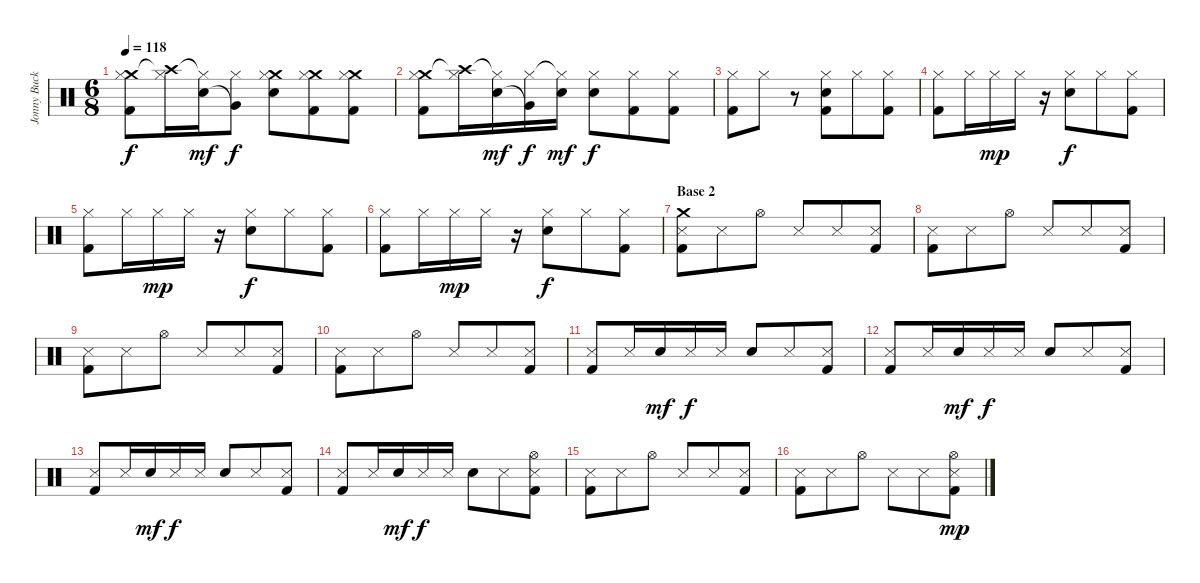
\track ("Jonny Buckland (batera)" "Jonny Buck") {instrument percussion}
\staff {score}
\articulation defaults
\ts (6 8)
\tempo 118
\clef neutral
\ks c
("Crash medium (hit)" "Hi-Hat (closed)" "Kick (hit) 2").8{dy f} ("Crash high (hit)"{t} "Hi-Hat (closed)").16 ("Hi-Hat (closed)"{t} "Snare (hit) 2").16{dy mf} ("Hi-Hat (closed)" "Very Low Tom (hit)"{t}).8{dy f} ("Crash medium (hit)" "Hi-Hat (closed)" "Electric Snare (hit)").8 ("Crash medium (hit)" "Hi-Hat (closed)" "Kick (hit) 2").8 ("Crash medium (hit)" "Hi-Hat (closed)" "Kick (hit) 2").8 |
("Crash medium (hit)" "Hi-Hat (closed)" "Kick (hit) 2").8 ("Crash high (hit)"{t} "Hi-Hat (closed)").16 ("Hi-Hat (closed)"{t} "Snare (hit) 2").16{dy mf} ("Hi-Hat (closed)" "Very Low Tom (hit)"{t}).16{dy f} ("Hi-Hat (closed)"{t} "Snare (hit) 2").16{dy mf} ("Hi-Hat (closed)" "Electric Snare (hit)").8{dy f} ("Hi-Hat (closed)" "Kick (hit) 2").8 ("Hi-Hat (closed)" "Kick (hit) 2").8 |
("Hi-Hat (closed)" "Kick (hit) 2").8 "Hi-Hat (closed)".8 r.8 ("Hi-Hat (closed)" "Electric Snare (hit)" "Kick (hit) 2").8 "Hi-Hat (closed)".8 ("Hi-Hat (closed)" "Kick (hit) 2").8 |
("Hi-Hat (closed)" "Kick (hit) 2").8 "Hi-Hat (closed)".16 "Hi-Hat (closed)".16{dy mp} "Hi-Hat (closed)".16 r.16 ("Hi-Hat (closed)" "Electric Snare (hit)").8{dy f} "Hi-Hat (closed)".8 ("Hi-Hat (closed)" "Kick (hit) 2").8 |
("Hi-Hat (closed)" "Kick (hit) 2").8 "Hi-Hat (closed)".16 "Hi-Hat (closed)".16{dy mp} "Hi-Hat (closed)".16 r.16 ("Hi-Hat (closed)" "Electric Snare (hit)").8{dy f} "Hi-Hat (closed)".8 ("Hi-Hat (closed)" "Kick (hit) 2").8 |
("Hi-Hat (closed)" "Kick (hit) 2").8 "Hi-Hat (closed)".16 "Hi-Hat (closed)".16{dy mp} "Hi-Hat (closed)".16 r.16 ("Hi-Hat (closed)" "Electric Snare (hit)").8{dy f} "Hi-Hat (closed)".8 ("Hi-Hat (closed)" "Kick (hit) 2").8 |
\section ("" "Base 2")
("Crash medium (hit)" "Snare (side stick) 3" "Kick (hit) 2").8 "Snare (side stick) 3".8 "Hi-Hat (open)".8 "Snare (side stick) 3".8 "Snare (side stick) 3".8 ("Snare (side stick) 3" "Kick (hit) 2").8 |
("Snare (side stick) 3" "Kick (hit) 2").8 "Snare (side stick) 3".8 "Hi-Hat (open)".8 "Snare (side stick) 3".8 "Snare (side stick) 3".8 ("Snare (side stick) 3" "Kick (hit) 2").8 |
("Snare (side stick) 3" "Kick (hit) 2").8 "Snare (side stick) 3".8 "Hi-Hat (open)".8 "Snare (side stick) 3".8 "Snare (side stick) 3".8 ("Snare (side stick) 3" "Kick (hit) 2").8 |
("Snare (side stick) 3" "Kick (hit) 2").8 "Snare (side stick) 3".8 "Hi-Hat (open)".8 "Snare (side stick) 3".8 "Snare (side stick) 3".8 ("Snare (side stick) 3" "Kick (hit) 2").8 |
("Snare (side stick) 3" "Kick (hit) 2").8 "Snare (side stick) 3".16 "Snare (hit) 2".16{dy mf} "Snare (side stick) 3".16{dy f} "Snare (side stick) 3".16 "Electric Snare (hit)".8 "Snare (side stick) 3".8 ("Snare (side stick) 3" "Kick (hit) 2").8 |
("Snare (side stick) 3" "Kick (hit) 2").8 "Snare (side stick) 3".16 "Snare (hit) 2".16{dy mf} "Snare (side stick) 3".16{dy f} "Snare (side stick) 3".16 "Electric Snare (hit)".8 "Snare (side stick) 3".8 ("Snare (side stick) 3" "Kick (hit) 2").8 |
("Snare (side stick) 3" "Kick (hit) 2").8 "Snare (side stick) 3".16 "Snare (hit) 2".16{dy mf} "Snare (side stick) 3".16{dy f} "Snare (side stick) 3".16 "Electric Snare (hit)".8 "Snare (side stick) 3".8 ("Snare (side stick) 3" "Kick (hit) 2").8 |
("Snare (side stick) 3" "Kick (hit) 2").8 "Snare (side stick) 3".16 "Snare (hit) 2".16{dy mf} "Snare (side stick) 3".16{dy f} "Snare (side stick) 3".16 "Electric Snare (hit)".8 "Snare (side stick) 3".8 ("Snare (side stick) 3" "Hi-Hat (open)" "Kick (hit) 2").8 |
("Snare (side stick) 3" "Kick (hit) 2").8 "Snare (side stick) 3".8 "Hi-Hat (open)".8 "Snare (side stick) 3".8 "Snare (side stick) 3".8 ("Snare (side stick) 3" "Kick (hit) 2").8 |
("Snare (side stick) 3" "Kick (hit) 2").8 "Snare (side stick) 3".8 "Hi-Hat (open)".8 "Snare (side stick) 3".8 "Snare (side stick) 3".8 ("Snare (side stick) 3" "Hi-Hat (open)" "Kick (hit) 2").8{dy mp}
